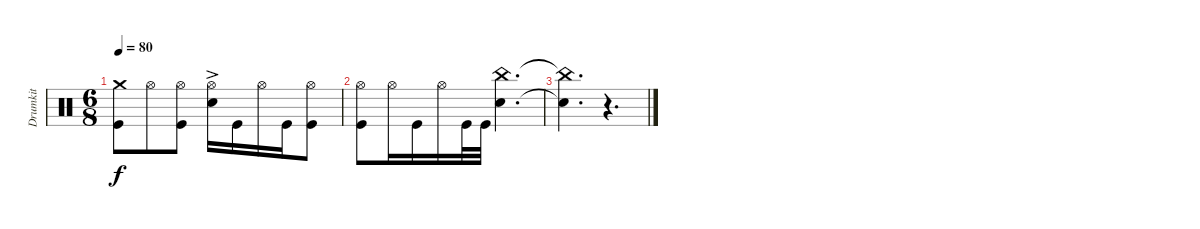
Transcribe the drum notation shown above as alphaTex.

\track ("Drumkit" "Drumkit") {instrument percussion}
\staff {score}
\articulation defaults
\ts (6 8)
\tempo 80
\clef neutral
\ks c
("Kick (hit)" "Crash medium (hit)").8{dy f} "Hi-Hat (open)".8 ("Kick (hit)" "Hi-Hat (open)").8 ("Snare (hit) 2"{ac} "Hi-Hat (open)").16 "Kick (hit)".16 "Hi-Hat (open)".16 "Kick (hit)".16 ("Kick (hit)" "Hi-Hat (open)").8 |
("Kick (hit)" "Hi-Hat (open)").8 "Hi-Hat (open)".16 "Kick (hit)".16 "Hi-Hat (open)".16 "Kick (hit)".32 "Kick (hit)".32 ("Snare (hit) 2" "China (hit)").4{d} |
("Snare (hit) 2"{t} "China (hit)"{t}).4{d} r.4{d}
